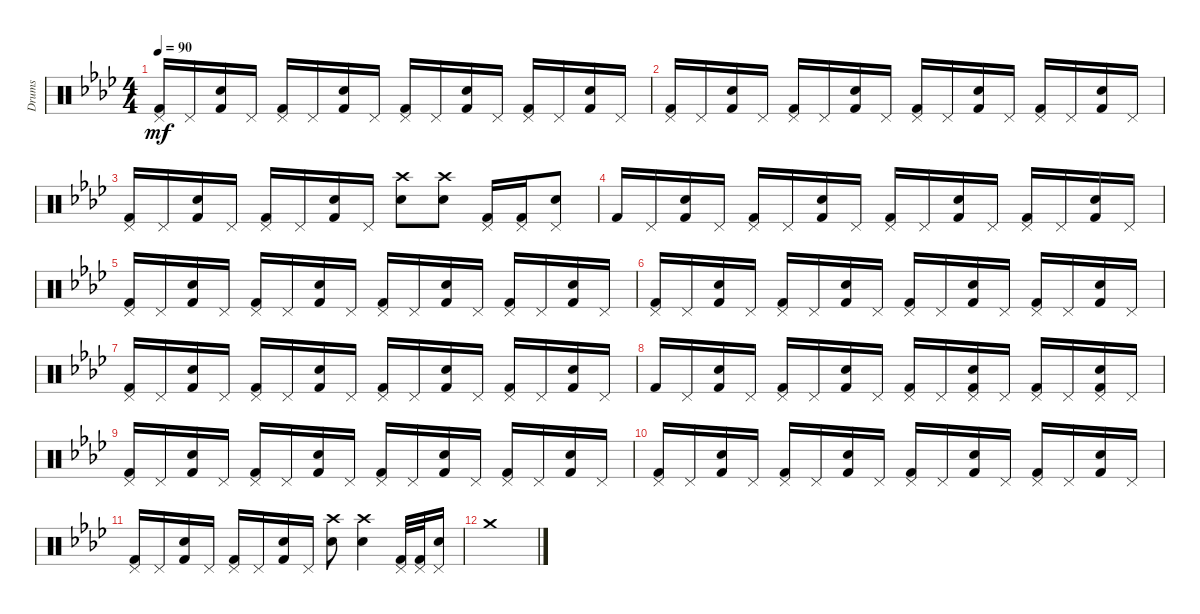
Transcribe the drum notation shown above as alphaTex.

\track ("Drums" "Drums") {instrument percussion}
\staff {score}
\articulation defaults
\ts (4 4)
\tempo 90
\clef neutral
\ks ab
("Pedal Hi-Hat (hit)" "Kick (hit) 2").16{dy mf} "Pedal Hi-Hat (hit)".16 ("Snare (hit) 2" "Kick (hit) 2").16 "Pedal Hi-Hat (hit)".16 ("Pedal Hi-Hat (hit)" "Kick (hit) 2").16 "Pedal Hi-Hat (hit)".16 ("Snare (hit) 2" "Kick (hit) 2").16 "Pedal Hi-Hat (hit)".16 ("Pedal Hi-Hat (hit)" "Kick (hit) 2").16 "Pedal Hi-Hat (hit)".16 ("Snare (hit) 2" "Kick (hit) 2").16 "Pedal Hi-Hat (hit)".16 ("Pedal Hi-Hat (hit)" "Kick (hit) 2").16 "Pedal Hi-Hat (hit)".16 ("Snare (hit) 2" "Kick (hit) 2").16 "Pedal Hi-Hat (hit)".16 |
("Pedal Hi-Hat (hit)" "Kick (hit) 2").16 "Pedal Hi-Hat (hit)".16 ("Snare (hit) 2" "Kick (hit) 2").16 "Pedal Hi-Hat (hit)".16 ("Pedal Hi-Hat (hit)" "Kick (hit) 2").16 "Pedal Hi-Hat (hit)".16 ("Snare (hit) 2" "Kick (hit) 2").16 "Pedal Hi-Hat (hit)".16 ("Pedal Hi-Hat (hit)" "Kick (hit) 2").16 "Pedal Hi-Hat (hit)".16 ("Snare (hit) 2" "Kick (hit) 2").16 "Pedal Hi-Hat (hit)".16 ("Pedal Hi-Hat (hit)" "Kick (hit) 2").16 "Pedal Hi-Hat (hit)".16 ("Snare (hit) 2" "Kick (hit) 2").16 "Pedal Hi-Hat (hit)".16 |
("Pedal Hi-Hat (hit)" "Kick (hit) 2").16 "Pedal Hi-Hat (hit)".16 ("Snare (hit) 2" "Kick (hit) 2").16 "Pedal Hi-Hat (hit)".16 ("Pedal Hi-Hat (hit)" "Kick (hit) 2").16 "Pedal Hi-Hat (hit)".16 ("Snare (hit) 2" "Kick (hit) 2").16 "Pedal Hi-Hat (hit)".16 ("Snare (hit) 2" "Crash high (hit)").8 ("Snare (hit) 2" "Crash high (hit)").8 ("Pedal Hi-Hat (hit)" "Kick (hit) 2").16 ("Pedal Hi-Hat (hit)" "Kick (hit) 2").16 ("Snare (hit) 2" "Pedal Hi-Hat (hit)").8 |
"Kick (hit) 2".16 "Pedal Hi-Hat (hit)".16 ("Snare (hit) 2" "Kick (hit) 2").16 "Pedal Hi-Hat (hit)".16 ("Pedal Hi-Hat (hit)" "Kick (hit) 2").16 "Pedal Hi-Hat (hit)".16 ("Snare (hit) 2" "Kick (hit) 2").16 "Pedal Hi-Hat (hit)".16 ("Pedal Hi-Hat (hit)" "Kick (hit) 2").16 "Pedal Hi-Hat (hit)".16 ("Snare (hit) 2" "Kick (hit) 2").16 "Pedal Hi-Hat (hit)".16 ("Pedal Hi-Hat (hit)" "Kick (hit) 2").16 "Pedal Hi-Hat (hit)".16 ("Snare (hit) 2" "Kick (hit) 2").16 "Pedal Hi-Hat (hit)".16 |
("Pedal Hi-Hat (hit)" "Kick (hit) 2").16 "Pedal Hi-Hat (hit)".16 ("Snare (hit) 2" "Kick (hit) 2").16 "Pedal Hi-Hat (hit)".16 ("Pedal Hi-Hat (hit)" "Kick (hit) 2").16 "Pedal Hi-Hat (hit)".16 ("Snare (hit) 2" "Kick (hit) 2").16 "Pedal Hi-Hat (hit)".16 ("Pedal Hi-Hat (hit)" "Kick (hit) 2").16 "Pedal Hi-Hat (hit)".16 ("Snare (hit) 2" "Kick (hit) 2").16 "Pedal Hi-Hat (hit)".16 ("Pedal Hi-Hat (hit)" "Kick (hit) 2").16 "Pedal Hi-Hat (hit)".16 ("Snare (hit) 2" "Kick (hit) 2").16 "Pedal Hi-Hat (hit)".16 |
("Pedal Hi-Hat (hit)" "Kick (hit) 2").16 "Pedal Hi-Hat (hit)".16 ("Snare (hit) 2" "Kick (hit) 2").16 "Pedal Hi-Hat (hit)".16 ("Pedal Hi-Hat (hit)" "Kick (hit) 2").16 "Pedal Hi-Hat (hit)".16 ("Snare (hit) 2" "Kick (hit) 2").16 "Pedal Hi-Hat (hit)".16 ("Pedal Hi-Hat (hit)" "Kick (hit) 2").16 "Pedal Hi-Hat (hit)".16 ("Snare (hit) 2" "Kick (hit) 2").16 "Pedal Hi-Hat (hit)".16 ("Pedal Hi-Hat (hit)" "Kick (hit) 2").16 "Pedal Hi-Hat (hit)".16 ("Snare (hit) 2" "Kick (hit) 2").16 "Pedal Hi-Hat (hit)".16 |
("Pedal Hi-Hat (hit)" "Kick (hit) 2").16 "Pedal Hi-Hat (hit)".16 ("Snare (hit) 2" "Kick (hit) 2").16 "Pedal Hi-Hat (hit)".16 ("Pedal Hi-Hat (hit)" "Kick (hit) 2").16 "Pedal Hi-Hat (hit)".16 ("Snare (hit) 2" "Kick (hit) 2").16 "Pedal Hi-Hat (hit)".16 ("Pedal Hi-Hat (hit)" "Kick (hit) 2").16 "Pedal Hi-Hat (hit)".16 ("Snare (hit) 2" "Kick (hit) 2").16 "Pedal Hi-Hat (hit)".16 ("Pedal Hi-Hat (hit)" "Kick (hit) 2").16 "Pedal Hi-Hat (hit)".16 ("Snare (hit) 2" "Kick (hit) 2").16 "Pedal Hi-Hat (hit)".16 |
"Kick (hit) 2".16 "Pedal Hi-Hat (hit)".16 ("Snare (hit) 2" "Kick (hit) 2").16 "Pedal Hi-Hat (hit)".16 ("Pedal Hi-Hat (hit)" "Kick (hit) 2").16 "Pedal Hi-Hat (hit)".16 ("Snare (hit) 2" "Kick (hit) 2").16 "Pedal Hi-Hat (hit)".16 ("Pedal Hi-Hat (hit)" "Kick (hit) 2").16 "Pedal Hi-Hat (hit)".16 ("Snare (hit) 2" "Pedal Hi-Hat (hit)" "Kick (hit) 2").16 "Pedal Hi-Hat (hit)".16 ("Pedal Hi-Hat (hit)" "Kick (hit) 2").16 "Pedal Hi-Hat (hit)".16 ("Snare (hit) 2" "Pedal Hi-Hat (hit)" "Kick (hit) 2").16 "Pedal Hi-Hat (hit)".16 |
("Pedal Hi-Hat (hit)" "Kick (hit) 2").16 "Pedal Hi-Hat (hit)".16 ("Snare (hit) 2" "Kick (hit) 2").16 "Pedal Hi-Hat (hit)".16 ("Pedal Hi-Hat (hit)" "Kick (hit) 2").16 "Pedal Hi-Hat (hit)".16 ("Snare (hit) 2" "Kick (hit) 2").16 "Pedal Hi-Hat (hit)".16 ("Pedal Hi-Hat (hit)" "Kick (hit) 2").16 "Pedal Hi-Hat (hit)".16 ("Snare (hit) 2" "Kick (hit) 2").16 "Pedal Hi-Hat (hit)".16 ("Pedal Hi-Hat (hit)" "Kick (hit) 2").16 "Pedal Hi-Hat (hit)".16 ("Snare (hit) 2" "Kick (hit) 2").16 "Pedal Hi-Hat (hit)".16 |
("Pedal Hi-Hat (hit)" "Kick (hit) 2").16 "Pedal Hi-Hat (hit)".16 ("Snare (hit) 2" "Kick (hit) 2").16 "Pedal Hi-Hat (hit)".16 ("Pedal Hi-Hat (hit)" "Kick (hit) 2").16 "Pedal Hi-Hat (hit)".16 ("Snare (hit) 2" "Kick (hit) 2").16 "Pedal Hi-Hat (hit)".16 ("Pedal Hi-Hat (hit)" "Kick (hit) 2").16 "Pedal Hi-Hat (hit)".16 ("Snare (hit) 2" "Kick (hit) 2").16 "Pedal Hi-Hat (hit)".16 ("Pedal Hi-Hat (hit)" "Kick (hit) 2").16 "Pedal Hi-Hat (hit)".16 ("Snare (hit) 2" "Kick (hit) 2").16 "Pedal Hi-Hat (hit)".16 |
("Pedal Hi-Hat (hit)" "Kick (hit) 2").16 "Pedal Hi-Hat (hit)".16 ("Snare (hit) 2" "Kick (hit) 2").16 "Pedal Hi-Hat (hit)".16 ("Pedal Hi-Hat (hit)" "Kick (hit) 2").16 "Pedal Hi-Hat (hit)".16 ("Snare (hit) 2" "Kick (hit) 2").16 "Pedal Hi-Hat (hit)".16 ("Snare (hit) 2" "Crash high (hit)").8 ("Snare (hit) 2" "Crash high (hit)").4 ("Pedal Hi-Hat (hit)" "Kick (hit) 2").32 ("Pedal Hi-Hat (hit)" "Kick (hit) 2").32 ("Snare (hit) 2" "Pedal Hi-Hat (hit)").16 |
"Crash medium (hit)".1
